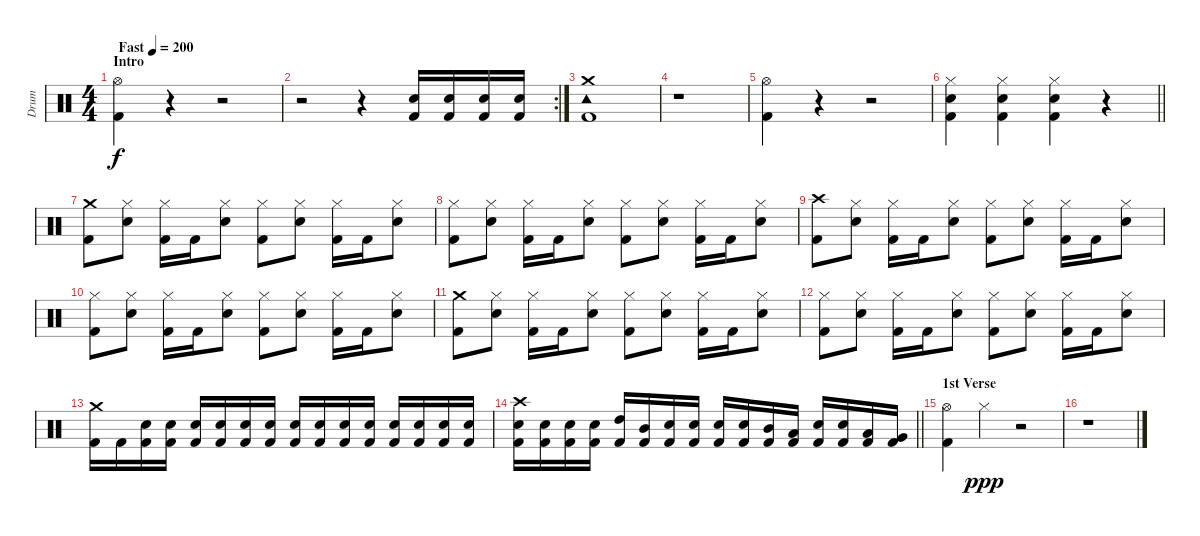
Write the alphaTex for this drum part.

\track ("Drum" "Drum") {instrument percussion}
\staff {score}
\articulation defaults
\ts (4 4)
\section ("" "Intro")
\tempo (200 "Fast")
\clef neutral
\ks c
("Kick (hit) 2" "Hi-Hat (open)").4{dy f} r.4 r.2 |
\rc 2
r.2 r.4 ("Kick (hit) 2" "Electric Snare (hit)").16 ("Kick (hit) 2" "Electric Snare (hit)").16 ("Kick (hit) 2" "Electric Snare (hit)").16 ("Kick (hit) 2" "Electric Snare (hit)").16 |
("Kick (hit) 2" "Tambourine (hit)" "Crash medium (hit)").1 |
r.1 |
("Kick (hit) 2" "Hi-Hat (open)").4 r.4 r.2 |
\barLineRight lightlight
("Kick (hit) 2" "Snare (hit) 2" "Hi-Hat (closed)").4 ("Kick (hit) 2" "Snare (hit) 2" "Hi-Hat (closed)").4 ("Kick (hit) 2" "Snare (hit) 2" "Hi-Hat (closed)").4 r.4 |
\section ("" "")
("Kick (hit) 2" "Crash medium (hit)").8 ("Snare (hit) 2" "Hi-Hat (closed)").8 ("Kick (hit) 2" "Hi-Hat (closed)").16 "Kick (hit) 2".16 ("Snare (hit) 2" "Hi-Hat (closed)").8 ("Kick (hit) 2" "Hi-Hat (closed)").8 ("Snare (hit) 2" "Hi-Hat (closed)").8 ("Kick (hit) 2" "Hi-Hat (closed)").16 "Kick (hit) 2".16 ("Snare (hit) 2" "Hi-Hat (closed)").8 |
("Kick (hit) 2" "Hi-Hat (closed)").8 ("Snare (hit) 2" "Hi-Hat (closed)").8 ("Kick (hit) 2" "Hi-Hat (closed)").16 "Kick (hit) 2".16 ("Snare (hit) 2" "Hi-Hat (closed)").8 ("Kick (hit) 2" "Hi-Hat (closed)").8 ("Snare (hit) 2" "Hi-Hat (closed)").8 ("Kick (hit) 2" "Hi-Hat (closed)").16 "Kick (hit) 2".16 ("Snare (hit) 2" "Hi-Hat (closed)").8 |
("Kick (hit) 2" "Crash high (hit)").8 ("Snare (hit) 2" "Hi-Hat (closed)").8 ("Kick (hit) 2" "Hi-Hat (closed)").16 "Kick (hit) 2".16 ("Snare (hit) 2" "Hi-Hat (closed)").8 ("Kick (hit) 2" "Hi-Hat (closed)").8 ("Snare (hit) 2" "Hi-Hat (closed)").8 ("Kick (hit) 2" "Hi-Hat (closed)").16 "Kick (hit) 2".16 ("Snare (hit) 2" "Hi-Hat (closed)").8 |
("Kick (hit) 2" "Hi-Hat (closed)").8 ("Snare (hit) 2" "Hi-Hat (closed)").8 ("Kick (hit) 2" "Hi-Hat (closed)").16 "Kick (hit) 2".16 ("Snare (hit) 2" "Hi-Hat (closed)").8 ("Kick (hit) 2" "Hi-Hat (closed)").8 ("Snare (hit) 2" "Hi-Hat (closed)").8 ("Kick (hit) 2" "Hi-Hat (closed)").16 "Kick (hit) 2".16 ("Snare (hit) 2" "Hi-Hat (closed)").8 |
("Kick (hit) 2" "Crash medium (hit)").8 ("Snare (hit) 2" "Hi-Hat (closed)").8 ("Kick (hit) 2" "Hi-Hat (closed)").16 "Kick (hit) 2".16 ("Snare (hit) 2" "Hi-Hat (closed)").8 ("Kick (hit) 2" "Hi-Hat (closed)").8 ("Snare (hit) 2" "Hi-Hat (closed)").8 ("Kick (hit) 2" "Hi-Hat (closed)").16 "Kick (hit) 2".16 ("Snare (hit) 2" "Hi-Hat (closed)").8 |
("Kick (hit) 2" "Hi-Hat (closed)").8 ("Snare (hit) 2" "Hi-Hat (closed)").8 ("Kick (hit) 2" "Hi-Hat (closed)").16 "Kick (hit) 2".16 ("Snare (hit) 2" "Hi-Hat (closed)").8 ("Kick (hit) 2" "Hi-Hat (closed)").8 ("Snare (hit) 2" "Hi-Hat (closed)").8 ("Kick (hit) 2" "Hi-Hat (closed)").16 "Kick (hit) 2".16 ("Snare (hit) 2" "Hi-Hat (closed)").8 |
("Kick (hit) 2" "Crash medium (hit)").16 "Kick (hit) 2".16 ("Kick (hit) 2" "Snare (hit) 2").16 ("Kick (hit) 2" "Snare (hit) 2").16 ("Kick (hit) 2" "Snare (hit) 2").16 ("Kick (hit) 2" "Snare (hit) 2").16 ("Kick (hit) 2" "Snare (hit) 2").16 ("Kick (hit) 2" "Snare (hit) 2").16 ("Kick (hit) 2" "Snare (hit) 2").16 ("Kick (hit) 2" "Snare (hit) 2").16 ("Kick (hit) 2" "Snare (hit) 2").16 ("Kick (hit) 2" "Snare (hit) 2").16 ("Kick (hit) 2" "Snare (hit) 2").16 ("Kick (hit) 2" "Snare (hit) 2").16 ("Kick (hit) 2" "Snare (hit) 2").16 ("Kick (hit) 2" "Snare (hit) 2").16 |
\barLineRight lightlight
("Kick (hit) 2" "Snare (hit) 2" "Crash high (hit)").16 ("Kick (hit) 2" "Snare (hit) 2").16 ("Kick (hit) 2" "Snare (hit) 2").16 ("Kick (hit) 2" "Snare (hit) 2").16 ("Kick (hit) 2" "High Tom (hit)").16 ("Kick (hit) 2" "Mid Tom (hit)").16 ("Kick (hit) 2" "Snare (hit) 2").16 ("Kick (hit) 2" "Snare (hit) 2").16 ("Kick (hit) 2" "Snare (hit) 2").16 ("Kick (hit) 2" "Snare (hit) 2").16 ("Kick (hit) 2" "Mid Tom (hit)").16 ("Kick (hit) 2" "Low Tom (hit)").16 ("Kick (hit) 2" "Snare (hit) 2").16 ("Kick (hit) 2" "Snare (hit) 2").16 ("Kick (hit) 2" "Low Tom (hit)").16 ("Kick (hit) 2" "Very Low Tom (hit)").16 |
\section ("" "1st Verse")
("Kick (hit) 2" "Hi-Hat (open)").4 "Hi-Hat (closed)".4{dy ppp} r.2 |
r.1
